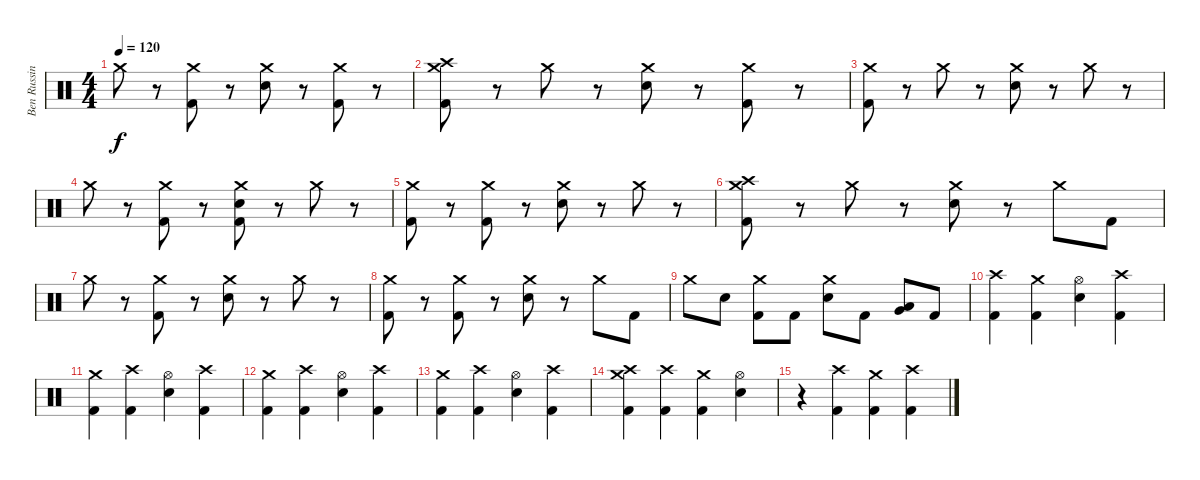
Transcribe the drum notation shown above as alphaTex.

\track ("Ben Russin" "Ben Russin") {instrument percussion}
\staff {score}
\articulation defaults
\ts (4 4)
\tempo 120
\clef neutral
\ks c "Crash medium (hit)".8{dy f}
r.8 ("Kick (hit) 2" "Crash medium (hit)").8 r.8 ("Snare (hit) 2" "Crash medium (hit)").8 r.8 ("Kick (hit) 2" "Crash medium (hit)").8 r.8 |
("Kick (hit) 2" "Crash high (hit)" "Crash medium (hit)").8 r.8 "Crash medium (hit)".8 r.8 ("Snare (hit) 2" "Crash medium (hit)").8 r.8 ("Kick (hit) 2" "Crash medium (hit)").8 r.8 |
("Kick (hit) 2" "Crash medium (hit)").8 r.8 "Crash medium (hit)".8 r.8 ("Snare (hit) 2" "Crash medium (hit)").8 r.8 "Crash medium (hit)".8 r.8 |
"Crash medium (hit)".8 r.8 ("Kick (hit) 2" "Crash medium (hit)").8 r.8 ("Kick (hit) 2" "Snare (hit) 2" "Crash medium (hit)").8 r.8 "Crash medium (hit)".8 r.8 |
("Kick (hit) 2" "Crash medium (hit)").8 r.8 ("Kick (hit) 2" "Crash medium (hit)").8 r.8 ("Snare (hit) 2" "Crash medium (hit)").8 r.8 "Crash medium (hit)".8 r.8 |
("Kick (hit) 2" "Crash high (hit)" "Crash medium (hit)").8 r.8 "Crash medium (hit)".8 r.8 ("Snare (hit) 2" "Crash medium (hit)").8 r.8 "Crash medium (hit)".8 "Kick (hit) 2".8 |
"Crash medium (hit)".8 r.8 ("Kick (hit) 2" "Crash medium (hit)").8 r.8 ("Snare (hit) 2" "Crash medium (hit)").8 r.8 "Crash medium (hit)".8 r.8 |
("Kick (hit) 2" "Crash medium (hit)").8 r.8 ("Kick (hit) 2" "Crash medium (hit)").8 r.8 ("Snare (hit) 2" "Crash medium (hit)").8 r.8 "Crash medium (hit)".8 "Kick (hit) 2".8 |
"Crash medium (hit)".8 "Snare (hit) 2".8 ("Kick (hit) 2" "Crash medium (hit)").8 "Kick (hit) 2".8 ("Snare (hit) 2" "Crash medium (hit)").8 "Kick (hit) 2".8 ("Very Low Tom (hit)" "Low Floor Tom (hit)").8 "Kick (hit) 2".8 |
("Kick (hit) 2" "Crash high (hit)").4 ("Kick (hit) 2" "Crash medium (hit)").4 ("Snare (hit) 2" "Hi-Hat (open)").4 ("Kick (hit) 2" "Crash high (hit)").4 |
("Kick (hit) 2" "Crash medium (hit)").4 ("Kick (hit) 2" "Crash high (hit)").4 ("Snare (hit) 2" "Hi-Hat (open)").4 ("Kick (hit) 2" "Crash high (hit)").4 |
("Kick (hit) 2" "Crash medium (hit)").4 ("Kick (hit) 2" "Crash high (hit)").4 ("Snare (hit) 2" "Hi-Hat (open)").4 ("Kick (hit) 2" "Crash high (hit)").4 |
("Kick (hit) 2" "Crash medium (hit)").4 ("Kick (hit) 2" "Crash high (hit)").4 ("Snare (hit) 2" "Hi-Hat (open)").4 ("Kick (hit) 2" "Crash high (hit)").4 |
("Kick (hit) 2" "Crash medium (hit)" "Crash high (hit)").4 ("Kick (hit) 2" "Crash high (hit)").4 ("Kick (hit) 2" "Crash medium (hit)").4 ("Snare (hit) 2" "Hi-Hat (open)").4 |
r.4 ("Kick (hit) 2" "Crash high (hit)").4 ("Kick (hit) 2" "Crash medium (hit)").4 ("Kick (hit) 2" "Crash high (hit)").4
